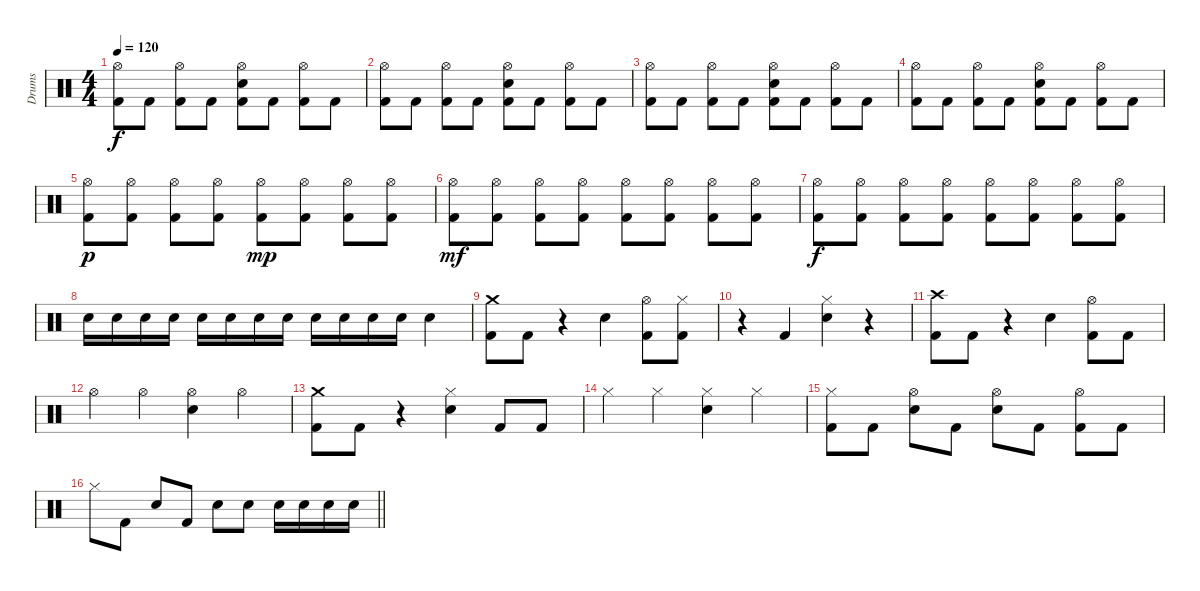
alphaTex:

\track ("Drums" "Drums") {instrument percussion}
\staff {score}
\articulation defaults
\ts (4 4)
\tempo 120
\clef neutral
\ks c
("Hi-Hat (open)" "Kick (hit) 2").8{dy f} "Kick (hit) 2".8 ("Hi-Hat (open)" "Kick (hit) 2").8 "Kick (hit) 2".8 ("Hi-Hat (open)" "Snare (hit) 2" "Kick (hit) 2").8 "Kick (hit) 2".8 ("Hi-Hat (open)" "Kick (hit) 2").8 "Kick (hit) 2".8 |
("Hi-Hat (open)" "Kick (hit) 2").8 "Kick (hit) 2".8 ("Hi-Hat (open)" "Kick (hit) 2").8 "Kick (hit) 2".8 ("Hi-Hat (open)" "Snare (hit) 2" "Kick (hit) 2").8 "Kick (hit) 2".8 ("Hi-Hat (open)" "Kick (hit) 2").8 "Kick (hit) 2".8 |
("Hi-Hat (open)" "Kick (hit) 2").8 "Kick (hit) 2".8 ("Hi-Hat (open)" "Kick (hit) 2").8 "Kick (hit) 2".8 ("Hi-Hat (open)" "Snare (hit) 2" "Kick (hit) 2").8 "Kick (hit) 2".8 ("Hi-Hat (open)" "Kick (hit) 2").8 "Kick (hit) 2".8 |
("Hi-Hat (open)" "Kick (hit) 2").8 "Kick (hit) 2".8 ("Hi-Hat (open)" "Kick (hit) 2").8 "Kick (hit) 2".8 ("Hi-Hat (open)" "Snare (hit) 2" "Kick (hit) 2").8 "Kick (hit) 2".8 ("Hi-Hat (open)" "Kick (hit) 2").8 "Kick (hit) 2".8 |
("Hi-Hat (open)" "Kick (hit) 2").8{dy p} ("Hi-Hat (open)" "Kick (hit) 2").8 ("Hi-Hat (open)" "Kick (hit) 2").8 ("Hi-Hat (open)" "Kick (hit) 2").8 ("Hi-Hat (open)" "Kick (hit) 2").8{dy mp} ("Hi-Hat (open)" "Kick (hit) 2").8 ("Hi-Hat (open)" "Kick (hit) 2").8 ("Hi-Hat (open)" "Kick (hit) 2").8 |
("Hi-Hat (open)" "Kick (hit) 2").8{dy mf} ("Hi-Hat (open)" "Kick (hit) 2").8 ("Hi-Hat (open)" "Kick (hit) 2").8 ("Hi-Hat (open)" "Kick (hit) 2").8 ("Hi-Hat (open)" "Kick (hit) 2").8 ("Hi-Hat (open)" "Kick (hit) 2").8 ("Hi-Hat (open)" "Kick (hit) 2").8 ("Hi-Hat (open)" "Kick (hit) 2").8 |
("Hi-Hat (open)" "Kick (hit) 2").8{dy f} ("Hi-Hat (open)" "Kick (hit) 2").8 ("Hi-Hat (open)" "Kick (hit) 2").8 ("Hi-Hat (open)" "Kick (hit) 2").8 ("Hi-Hat (open)" "Kick (hit) 2").8 ("Hi-Hat (open)" "Kick (hit) 2").8 ("Hi-Hat (open)" "Kick (hit) 2").8 ("Hi-Hat (open)" "Kick (hit) 2").8 |
"Snare (hit) 2".16 "Snare (hit) 2".16 "Snare (hit) 2".16 "Snare (hit) 2".16 "Snare (hit) 2".16 "Snare (hit) 2".16 "Snare (hit) 2".16 "Snare (hit) 2".16 "Snare (hit) 2".16 "Snare (hit) 2".16 "Snare (hit) 2".16 "Snare (hit) 2".16 "Snare (hit) 2".4 |
("Crash medium (hit)" "Kick (hit) 2").8 "Kick (hit) 2".8 r.4 "Snare (hit) 2".4 ("Hi-Hat (open)" "Kick (hit) 2").8 ("Hi-Hat (closed)" "Kick (hit) 2").8 |
r.4 "Kick (hit) 2".4 ("Hi-Hat (closed)" "Snare (hit) 2").4 r.4 |
("Crash high (hit)" "Kick (hit) 2").8 "Kick (hit) 2".8 r.4 "Snare (hit) 2".4 ("Hi-Hat (open)" "Kick (hit) 2").8 "Kick (hit) 2".8 |
"Hi-Hat (open)".4 "Hi-Hat (open)".4 ("Hi-Hat (open)" "Snare (hit) 2").4 "Hi-Hat (open)".4 |
("Crash medium (hit)" "Kick (hit) 2").8 "Kick (hit) 2".8 r.4 ("Hi-Hat (closed)" "Snare (hit) 2").4 "Kick (hit) 2".8 "Kick (hit) 2".8 |
"Hi-Hat (closed)".4 "Hi-Hat (closed)".4 ("Hi-Hat (closed)" "Snare (hit) 2").4 "Hi-Hat (closed)".4 |
("Hi-Hat (closed)" "Kick (hit) 2").8 "Kick (hit) 2".8 ("Hi-Hat (open)" "Snare (hit) 2").8 "Kick (hit) 2".8 ("Hi-Hat (open)" "Snare (hit) 2").8 "Kick (hit) 2".8 ("Hi-Hat (open)" "Kick (hit) 2").8 "Kick (hit) 2".8 |
\barLineRight lightlight "Hi-Hat (closed)".8 "Kick (hit) 2".8 "Snare (hit) 2".8 "Kick (hit) 2".8 "Snare (hit) 2".8 "Snare (hit) 2".8 "Snare (hit) 2".16 "Snare (hit) 2".16 "Snare (hit) 2".16 "Snare (hit) 2".16
